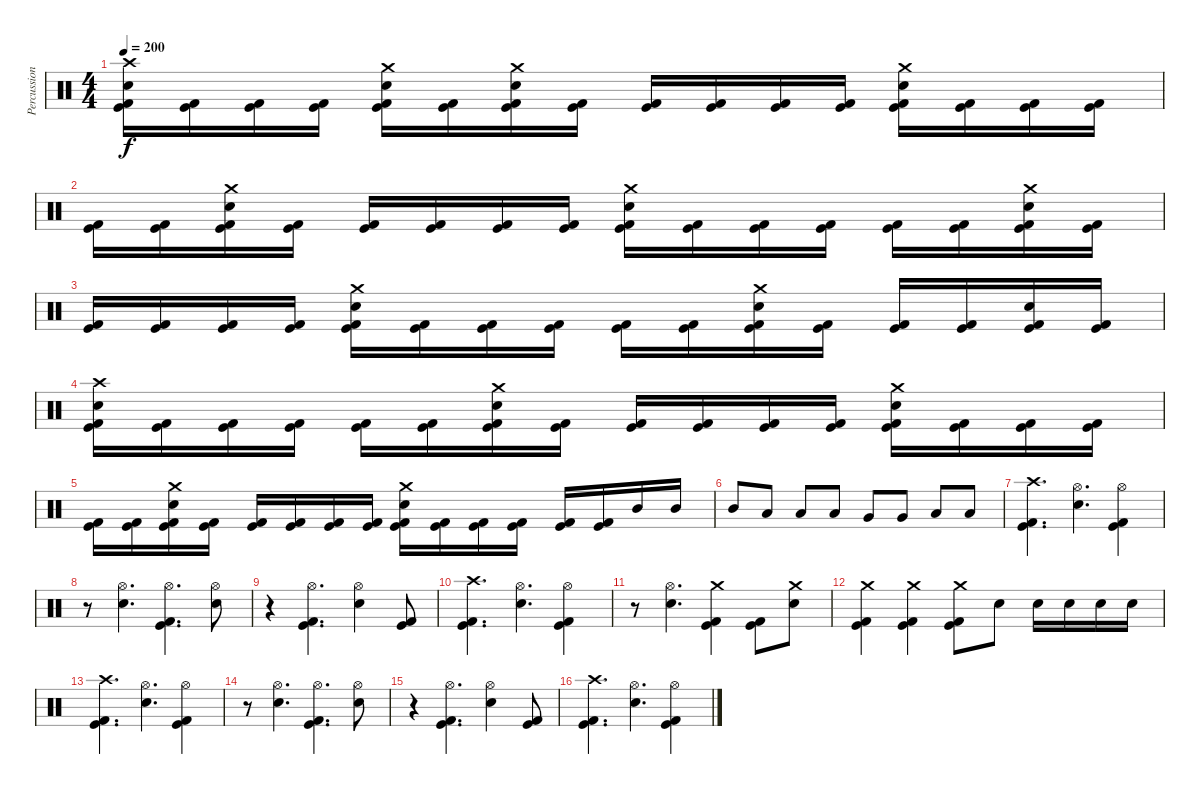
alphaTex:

\track ("Percussions" "Percussion") {instrument percussion}
\staff {score}
\articulation defaults
\ts (4 4)
\tempo 200
\clef neutral
\ks c
("Crash high (hit)" "Electric Snare (hit)" "Kick (hit)" "Kick (hit) 2").16{dy f} ("Kick (hit)" "Kick (hit) 2").16 ("Kick (hit)" "Kick (hit) 2").16 ("Kick (hit)" "Kick (hit) 2").16 ("Crash medium (hit)" "Electric Snare (hit)" "Kick (hit)" "Kick (hit) 2").16 ("Kick (hit)" "Kick (hit) 2").16 ("Crash medium (hit)" "Electric Snare (hit)" "Kick (hit)" "Kick (hit) 2").16 ("Kick (hit)" "Kick (hit) 2").16 ("Kick (hit)" "Kick (hit) 2").16 ("Kick (hit)" "Kick (hit) 2").16 ("Kick (hit)" "Kick (hit) 2").16 ("Kick (hit)" "Kick (hit) 2").16 ("Crash medium (hit)" "Electric Snare (hit)" "Kick (hit)" "Kick (hit) 2").16 ("Kick (hit)" "Kick (hit) 2").16 ("Kick (hit)" "Kick (hit) 2").16 ("Kick (hit)" "Kick (hit) 2").16 |
("Kick (hit)" "Kick (hit) 2").16 ("Kick (hit)" "Kick (hit) 2").16 ("Crash medium (hit)" "Electric Snare (hit)" "Kick (hit)" "Kick (hit) 2").16 ("Kick (hit)" "Kick (hit) 2").16 ("Kick (hit)" "Kick (hit) 2").16 ("Kick (hit)" "Kick (hit) 2").16 ("Kick (hit)" "Kick (hit) 2").16 ("Kick (hit)" "Kick (hit) 2").16 ("Crash medium (hit)" "Electric Snare (hit)" "Kick (hit)" "Kick (hit) 2").16 ("Kick (hit)" "Kick (hit) 2").16 ("Kick (hit)" "Kick (hit) 2").16 ("Kick (hit)" "Kick (hit) 2").16 ("Kick (hit)" "Kick (hit) 2").16 ("Kick (hit)" "Kick (hit) 2").16 ("Crash medium (hit)" "Electric Snare (hit)" "Kick (hit)" "Kick (hit) 2").16 ("Kick (hit)" "Kick (hit) 2").16 |
("Kick (hit)" "Kick (hit) 2").16 ("Kick (hit)" "Kick (hit) 2").16 ("Kick (hit)" "Kick (hit) 2").16 ("Kick (hit)" "Kick (hit) 2").16 ("Crash medium (hit)" "Electric Snare (hit)" "Kick (hit)" "Kick (hit) 2").16 ("Kick (hit)" "Kick (hit) 2").16 ("Kick (hit)" "Kick (hit) 2").16 ("Kick (hit)" "Kick (hit) 2").16 ("Kick (hit)" "Kick (hit) 2").16 ("Kick (hit)" "Kick (hit) 2").16 ("Crash medium (hit)" "Electric Snare (hit)" "Kick (hit)" "Kick (hit) 2").16 ("Kick (hit)" "Kick (hit) 2").16 ("Kick (hit)" "Kick (hit) 2").16 ("Kick (hit)" "Kick (hit) 2").16 ("Electric Snare (hit)" "Kick (hit)" "Kick (hit) 2").16 ("Kick (hit)" "Kick (hit) 2").16 |
("Crash high (hit)" "Electric Snare (hit)" "Kick (hit)" "Kick (hit) 2").16 ("Kick (hit)" "Kick (hit) 2").16 ("Kick (hit)" "Kick (hit) 2").16 ("Kick (hit)" "Kick (hit) 2").16 ("Kick (hit)" "Kick (hit) 2").16 ("Kick (hit)" "Kick (hit) 2").16 ("Crash medium (hit)" "Electric Snare (hit)" "Kick (hit)" "Kick (hit) 2").16 ("Kick (hit)" "Kick (hit) 2").16 ("Kick (hit)" "Kick (hit) 2").16 ("Kick (hit)" "Kick (hit) 2").16 ("Kick (hit)" "Kick (hit) 2").16 ("Kick (hit)" "Kick (hit) 2").16 ("Crash medium (hit)" "Electric Snare (hit)" "Kick (hit)" "Kick (hit) 2").16 ("Kick (hit)" "Kick (hit) 2").16 ("Kick (hit)" "Kick (hit) 2").16 ("Kick (hit)" "Kick (hit) 2").16 |
("Kick (hit)" "Kick (hit) 2").16 ("Kick (hit)" "Kick (hit) 2").16 ("Crash medium (hit)" "Electric Snare (hit)" "Kick (hit)" "Kick (hit) 2").16 ("Kick (hit)" "Kick (hit) 2").16 ("Kick (hit)" "Kick (hit) 2").16 ("Kick (hit)" "Kick (hit) 2").16 ("Kick (hit)" "Kick (hit) 2").16 ("Kick (hit)" "Kick (hit) 2").16 ("Crash medium (hit)" "Electric Snare (hit)" "Kick (hit)" "Kick (hit) 2").16 ("Kick (hit)" "Kick (hit) 2").16 ("Kick (hit)" "Kick (hit) 2").16 ("Kick (hit)" "Kick (hit) 2").16 ("Kick (hit)" "Kick (hit) 2").16 ("Kick (hit)" "Kick (hit) 2").16 "Mid Tom (hit)".16 "Mid Tom (hit)".16 |
"Mid Tom (hit)".8 "Low Tom (hit)".8 "Low Tom (hit)".8 "Low Tom (hit)".8 "Very Low Tom (hit)".8 "Very Low Tom (hit)".8 "Low Floor Tom (hit)".8 "Low Floor Tom (hit)".8 |
("Crash high (hit)" "Kick (hit)" "Kick (hit) 2").4{d} ("Hi-Hat (open)" "Electric Snare (hit)").4{d} ("Hi-Hat (open)" "Kick (hit)" "Kick (hit) 2").4 |
r.8 ("Hi-Hat (open)" "Electric Snare (hit)").4{d} ("Hi-Hat (open)" "Kick (hit)" "Kick (hit) 2").4{d} ("Hi-Hat (open)" "Electric Snare (hit)").8 |
r.4 ("Hi-Hat (open)" "Kick (hit)" "Kick (hit) 2").4{d} ("Hi-Hat (open)" "Electric Snare (hit)").4 ("Kick (hit)" "Kick (hit) 2").8 |
("Crash high (hit)" "Kick (hit)" "Kick (hit) 2").4{d} ("Hi-Hat (open)" "Electric Snare (hit)").4{d} ("Hi-Hat (open)" "Kick (hit)" "Kick (hit) 2").4 |
r.8 ("Hi-Hat (open)" "Electric Snare (hit)").4{d} ("Crash medium (hit)" "Kick (hit)" "Kick (hit) 2").4 ("Kick (hit)" "Kick (hit) 2").8 ("Crash medium (hit)" "Electric Snare (hit)").8 |
("Crash medium (hit)" "Kick (hit)" "Kick (hit) 2").4 ("Crash medium (hit)" "Kick (hit)" "Kick (hit) 2").4 ("Crash medium (hit)" "Kick (hit)" "Kick (hit) 2").8 "Electric Snare (hit)".8 "Electric Snare (hit)".16 "Electric Snare (hit)".16 "Electric Snare (hit)".16 "Electric Snare (hit)".16 |
("Crash high (hit)" "Kick (hit)" "Kick (hit) 2").4{d} ("Hi-Hat (open)" "Electric Snare (hit)").4{d} ("Hi-Hat (open)" "Kick (hit)" "Kick (hit) 2").4 |
r.8 ("Hi-Hat (open)" "Electric Snare (hit)").4{d} ("Hi-Hat (open)" "Kick (hit)" "Kick (hit) 2").4{d} ("Hi-Hat (open)" "Electric Snare (hit)").8 |
r.4 ("Hi-Hat (open)" "Kick (hit)" "Kick (hit) 2").4{d} ("Hi-Hat (open)" "Electric Snare (hit)").4 ("Kick (hit)" "Kick (hit) 2").8 |
("Crash high (hit)" "Kick (hit)" "Kick (hit) 2").4{d} ("Hi-Hat (open)" "Electric Snare (hit)").4{d} ("Hi-Hat (open)" "Kick (hit)" "Kick (hit) 2").4
